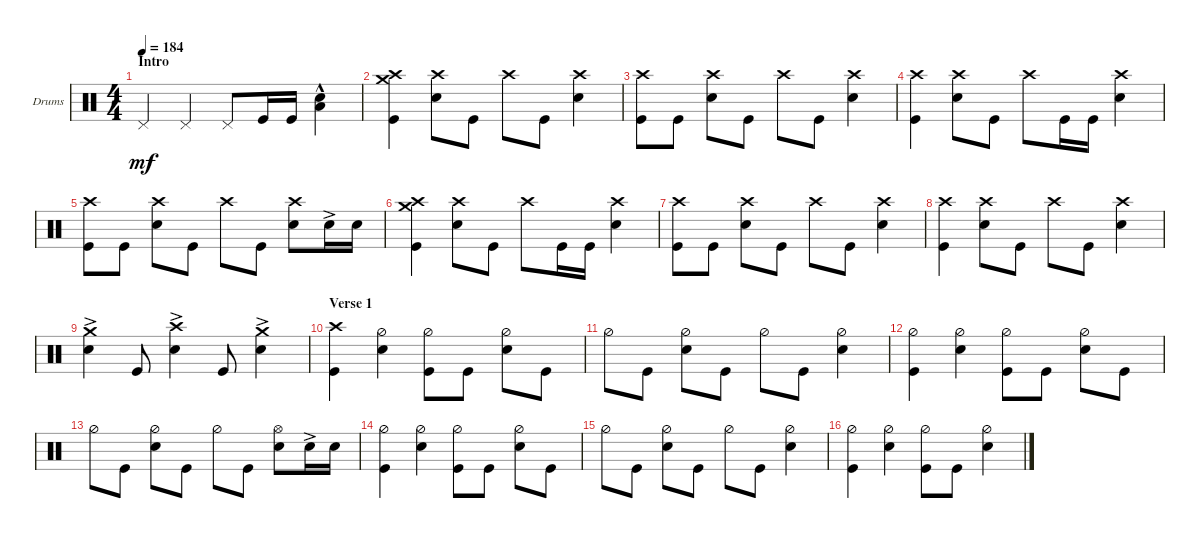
\defaultSystemsLayout 4
\bracketExtendMode groupsimilarinstruments
\firstSystemTrackNameOrientation horizontal
\otherSystemsTrackNameOrientation horizontal
\track ("Drums (Phoenix)" "Drums") {instrument percussion}
\staff {score}
\articulation defaults
\ts (4 4)
\section ("" "Intro")
\tempo 184
\clef neutral
\ks c "Pedal Hi-Hat (hit)".4{dy mf} "Pedal Hi-Hat (hit)".4 "Pedal Hi-Hat (hit)".8 "Kick (hit)".16 "Kick (hit)".16
("Snare (hit) 2"{hac} "Low Tom (hit)").4 |
("Kick (hit)" "Crash high (hit)" "Crash medium (hit)").4 ("Snare (hit) 2" "Crash high (hit)").8 "Kick (hit)".8 "Crash high (hit)".8 "Kick (hit)".8 ("Snare (hit) 2" "Crash high (hit)").4 |
("Kick (hit)" "Crash high (hit)").8 "Kick (hit)".8 ("Snare (hit) 2" "Crash high (hit)").8 "Kick (hit)".8 "Crash high (hit)".8 "Kick (hit)".8 ("Snare (hit) 2" "Crash high (hit)").4 |
("Kick (hit)" "Crash high (hit)").4 ("Snare (hit) 2" "Crash high (hit)").8 "Kick (hit)".8 "Crash high (hit)".8 "Kick (hit)".16 "Kick (hit)".16 ("Snare (hit) 2" "Crash high (hit)").4 |
("Kick (hit)" "Crash high (hit)").8 "Kick (hit)".8 ("Snare (hit) 2" "Crash high (hit)").8 "Kick (hit)".8 "Crash high (hit)".8 "Kick (hit)".8 ("Snare (hit) 2" "Crash high (hit)").8 "Snare (hit) 2"{ac}.16 "Snare (hit) 2".16 |
("Kick (hit)" "Crash high (hit)" "Crash medium (hit)").4 ("Snare (hit) 2" "Crash high (hit)").8 "Kick (hit)".8 "Crash high (hit)".8 "Kick (hit)".16 "Kick (hit)".16 ("Snare (hit) 2" "Crash high (hit)").4 |
("Kick (hit)" "Crash high (hit)").8 "Kick (hit)".8 ("Snare (hit) 2" "Crash high (hit)").8 "Kick (hit)".8 "Crash high (hit)".8 "Kick (hit)".8 ("Snare (hit) 2" "Crash high (hit)").4 |
("Kick (hit)" "Crash high (hit)").4 ("Snare (hit) 2" "Crash high (hit)").8 "Kick (hit)".8 "Crash high (hit)".8 "Kick (hit)".8 ("Snare (hit) 2" "Crash high (hit)").4 |
("Snare (hit) 2"{ac} "Crash medium (hit)").4 "Kick (hit)".8 ("Snare (hit) 2"{ac} "Crash high (hit)").4 "Kick (hit)".8 ("Snare (hit) 2"{ac} "Crash medium (hit)").4 |
\section ("" "Verse 1")
("Kick (hit)" "Crash high (hit)").4 ("Snare (hit) 2" "Hi-Hat (half)").4 ("Kick (hit)" "Hi-Hat (half)").8 "Kick (hit)".8 ("Snare (hit) 2" "Hi-Hat (half)").8 "Kick (hit)".8 |
"Hi-Hat (half)".8 "Kick (hit)".8 ("Snare (hit) 2" "Hi-Hat (half)").8 "Kick (hit)".8 "Hi-Hat (half)".8 "Kick (hit)".8 ("Snare (hit) 2" "Hi-Hat (half)").4 |
("Kick (hit)" "Hi-Hat (half)").4 ("Snare (hit) 2" "Hi-Hat (half)").4 ("Kick (hit)" "Hi-Hat (half)").8 "Kick (hit)".8 ("Snare (hit) 2" "Hi-Hat (half)").8 "Kick (hit)".8 |
"Hi-Hat (half)".8 "Kick (hit)".8 ("Snare (hit) 2" "Hi-Hat (half)").8 "Kick (hit)".8 "Hi-Hat (half)".8 "Kick (hit)".8 ("Snare (hit) 2" "Hi-Hat (open)").8 "Snare (hit) 2"{ac}.16 "Snare (hit) 2".16 |
("Kick (hit)" "Hi-Hat (half)").4 ("Snare (hit) 2" "Hi-Hat (half)").4 ("Kick (hit)" "Hi-Hat (half)").8 "Kick (hit)".8 ("Snare (hit) 2" "Hi-Hat (half)").8 "Kick (hit)".8 |
"Hi-Hat (half)".8 "Kick (hit)".8 ("Snare (hit) 2" "Hi-Hat (half)").8 "Kick (hit)".8 "Hi-Hat (half)".8 "Kick (hit)".8 ("Snare (hit) 2" "Hi-Hat (half)").4 |
("Kick (hit)" "Hi-Hat (half)").4 ("Snare (hit) 2" "Hi-Hat (half)").4 ("Kick (hit)" "Hi-Hat (half)").8 "Kick (hit)".8 ("Snare (hit) 2" "Hi-Hat (half)").4
